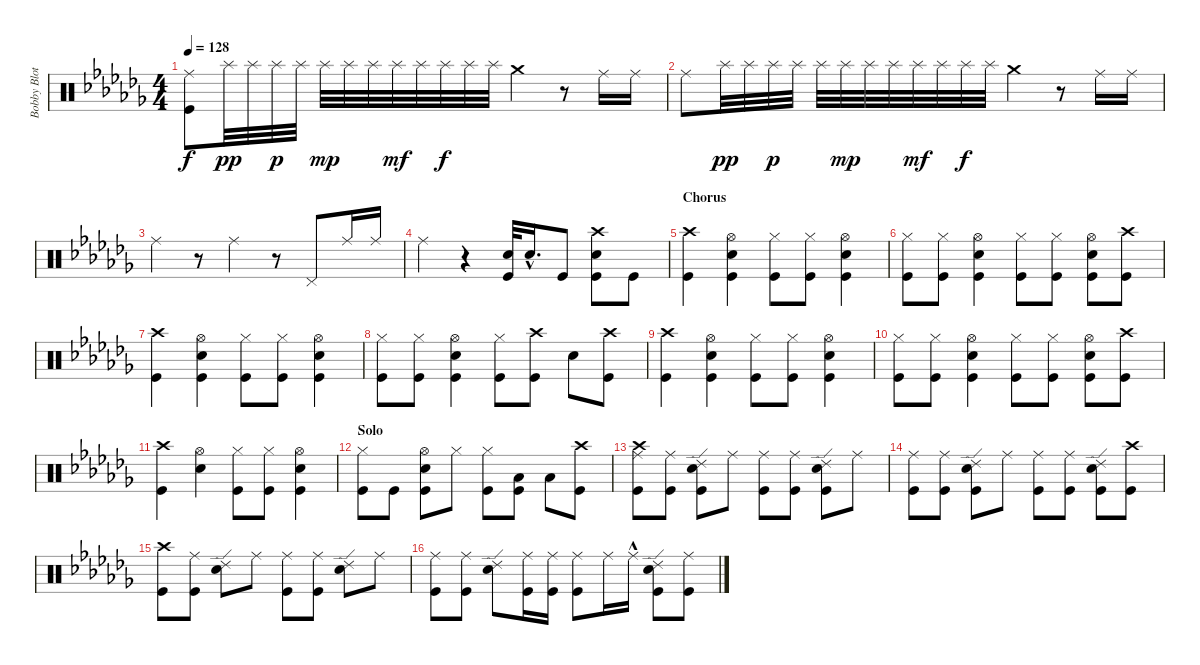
\track ("Bobby Blotzer" "Bobby Blot") {instrument percussion}
\staff {score}
\articulation defaults
\ts (4 4)
\tempo 128
\clef neutral
\ks cb
("Ride (middle)" "Kick (hit)").8{dy f} "Splash (hit)".32{dy pp} "Splash (hit)".32 "Splash (hit)".32{dy p} "Splash (hit)".32 "Splash (hit)".32{dy mp} "Splash (hit)".32 "Splash (hit)".32 "Splash (hit)".32{dy mf} "Splash (hit)".32 "Splash (hit)".32{dy f} "Splash (hit)".32 "Splash (hit)".32 "Crash medium (hit)".4 r.8 "Ride (middle)".16 "Ride (middle)".16 |
"Ride (middle)".8 "Splash (hit)".32{dy pp} "Splash (hit)".32 "Splash (hit)".32{dy p} "Splash (hit)".32 "Splash (hit)".32 "Splash (hit)".32{dy mp} "Splash (hit)".32 "Splash (hit)".32 "Splash (hit)".32{dy mf} "Splash (hit)".32 "Splash (hit)".32{dy f} "Splash (hit)".32 "Crash medium (hit)".4 r.8 "Ride (middle)".16 "Ride (middle)".16 |
"Ride (middle)".4 r.8 "Ride (middle)".4 r.8 "Pedal Hi-Hat (hit)".8 "Ride (middle)".16 "Ride (middle)".16 |
"Ride (middle)".4 r.4 ("Snare (hit) 2" "Kick (hit)").32 "Snare (hit) 2"{hac}.16{d} "Kick (hit)".8 ("Crash high (hit)" "Kick (hit)" "Snare (hit) 2").8 "Kick (hit)".8 |
\section ("" "Chorus")
("Kick (hit)" "Crash high (hit)").4 ("Kick (hit)" "Snare (hit) 2" "Hi-Hat (open)").4 ("Kick (hit)" "Hi-Hat (closed)").8 ("Hi-Hat (closed)" "Kick (hit)").8 ("Hi-Hat (open)" "Kick (hit)" "Snare (hit) 2").4 |
("Hi-Hat (closed)" "Kick (hit)").8 ("Hi-Hat (closed)" "Kick (hit)").8 ("Snare (hit) 2" "Kick (hit)" "Hi-Hat (open)").4 ("Hi-Hat (closed)" "Kick (hit)").8 ("Kick (hit)" "Hi-Hat (closed)").8 ("Kick (hit)" "Snare (hit) 2" "Hi-Hat (open)").8 ("Crash high (hit)" "Kick (hit)").8 |
("Kick (hit)" "Crash high (hit)").4 ("Hi-Hat (open)" "Snare (hit) 2" "Kick (hit)").4 ("Hi-Hat (closed)" "Kick (hit)").8 ("Kick (hit)" "Hi-Hat (closed)").8 ("Hi-Hat (open)" "Snare (hit) 2" "Kick (hit)").4 |
("Kick (hit)" "Hi-Hat (closed)").8 ("Kick (hit)" "Hi-Hat (closed)").8 ("Kick (hit)" "Hi-Hat (open)" "Snare (hit) 2").4 ("Hi-Hat (closed)" "Kick (hit)").8 ("Crash high (hit)" "Kick (hit)").8 "Snare (hit) 2".8 ("Kick (hit)" "Crash high (hit)").8 |
("Crash high (hit)" "Kick (hit)").4 ("Kick (hit)" "Snare (hit) 2" "Hi-Hat (open)").4 ("Hi-Hat (closed)" "Kick (hit)").8 ("Hi-Hat (closed)" "Kick (hit)").8 ("Hi-Hat (open)" "Kick (hit)" "Snare (hit) 2").4 |
("Hi-Hat (closed)" "Kick (hit)").8 ("Hi-Hat (closed)" "Kick (hit)").8 ("Hi-Hat (open)" "Kick (hit)" "Snare (hit) 2").4 ("Hi-Hat (closed)" "Kick (hit)").8 ("Hi-Hat (closed)" "Kick (hit)").8 ("Kick (hit)" "Hi-Hat (open)" "Snare (hit) 2").8 ("Crash high (hit)" "Kick (hit)").8 |
("Crash high (hit)" "Kick (hit)").4 ("Hi-Hat (open)" "Snare (hit) 2").4 ("Hi-Hat (closed)" "Kick (hit)").8 ("Hi-Hat (closed)" "Kick (hit)").8 ("Hi-Hat (open)" "Kick (hit)" "Snare (hit) 2").4 |
\section ("" "Solo")
("Hi-Hat (closed)" "Kick (hit)").8 "Kick (hit)".8 ("Hi-Hat (open)" "Kick (hit)" "Snare (hit) 2").8 "Hi-Hat (closed)".8 ("Kick (hit)" "Hi-Hat (closed)").8 ("Kick (hit)" "Low Tom (hit)").8 "Low Tom (hit)".8 ("Kick (hit)" "Crash high (hit)").8 |
("Ride (middle)" "Kick (hit)" "Crash high (hit)").8 ("Kick (hit)" "Ride (middle)").8 ("Kick (hit)" "Snare (hit) 2" "Ride (edge) 2").8 "Ride (middle)".8 ("Kick (hit)" "Ride (middle)").8 ("Ride (middle)" "Kick (hit)").8 ("Kick (hit)" "Ride (edge) 2" "Snare (hit) 2").8 "Ride (middle)".8 |
("Kick (hit)" "Ride (middle)").8 ("Kick (hit)" "Ride (middle)").8 ("Kick (hit)" "Snare (hit) 2" "Ride (edge) 2").8 "Ride (middle)".8 ("Ride (middle)" "Kick (hit)").8 ("Ride (middle)" "Kick (hit)").8 ("Ride (edge) 2" "Kick (hit)" "Snare (hit) 2").8 ("Kick (hit)" "Crash high (hit)").8 |
("Kick (hit)" "Crash high (hit)").8 ("Ride (middle)" "Kick (hit)").8 ("Ride (edge) 2" "Snare (hit) 2").8 "Ride (middle)".8 ("Kick (hit)" "Ride (middle)").8 ("Ride (middle)" "Kick (hit)").8 ("Ride (edge) 2" "Snare (hit) 2").8 "Ride (middle)".8 |
("Ride (middle)" "Kick (hit)").8 ("Kick (hit)" "Ride (middle)").8 ("Ride (edge) 2" "Snare (hit) 2").8 ("Ride (middle)" "Kick (hit)").16 ("Ride (middle)" "Kick (hit)").16 ("Ride (middle)" "Kick (hit)").8 "Ride (middle)".16 "Ride (middle)"{hac}.16 ("Kick (hit)" "Ride (edge) 2" "Snare (hit) 2").8 ("Ride (middle)" "Kick (hit)").8
